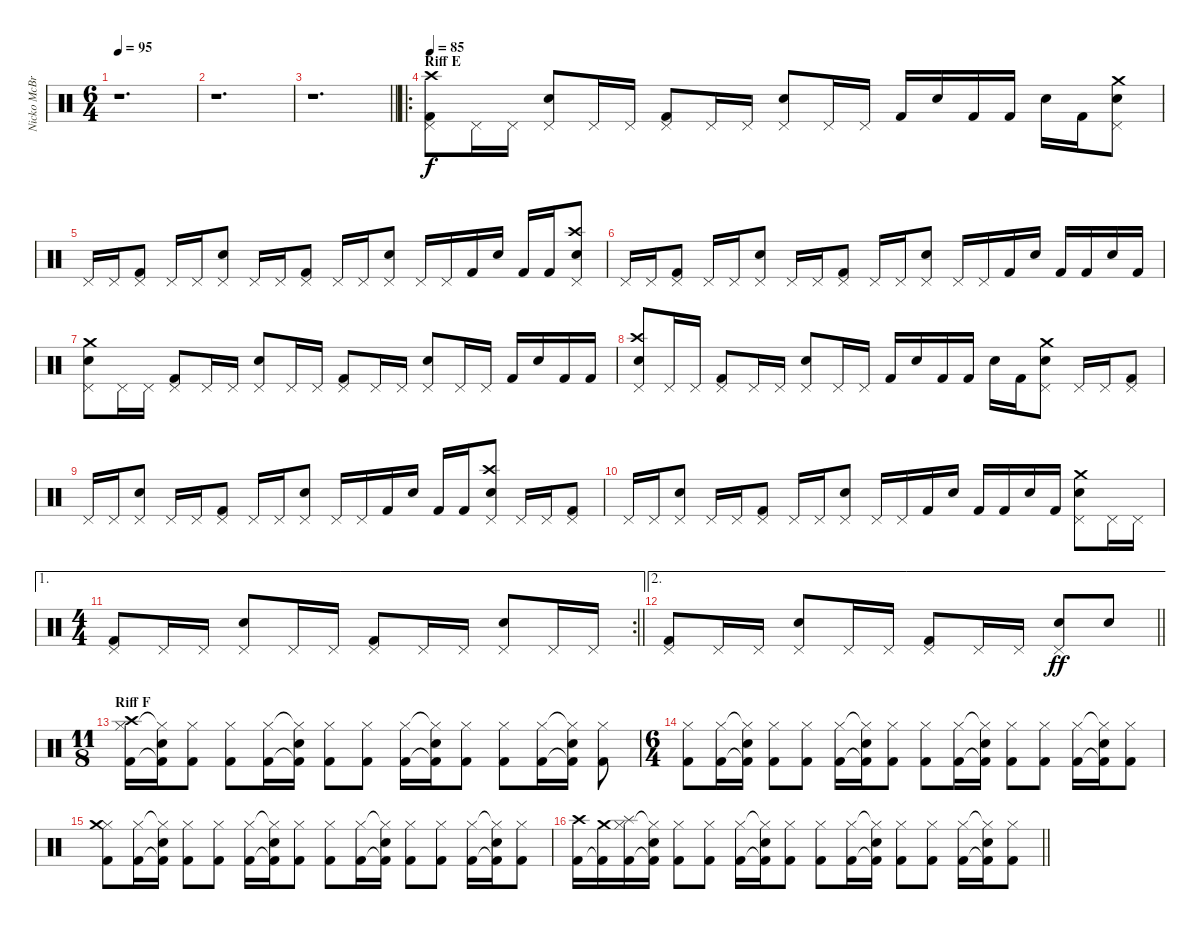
\track ("Nicko McBrain" "Nicko McBr") {instrument percussion}
\staff {score}
\articulation defaults
\ts (6 4)
\tempo 95
\clef neutral
\ks c
r.1{d dy f} |
r.1{d} |
\barLineRight lightlight
r.1{d} |
\ro
\section ("" "Riff E")
\tempo 85
("Kick (hit) 2" "Pedal Hi-Hat (hit)" "Crash high (hit)").8 "Pedal Hi-Hat (hit)".16 "Pedal Hi-Hat (hit)".16 ("Snare (hit) 2" "Pedal Hi-Hat (hit)").8 "Pedal Hi-Hat (hit)".16 "Pedal Hi-Hat (hit)".16 ("Kick (hit) 2" "Pedal Hi-Hat (hit)").8 "Pedal Hi-Hat (hit)".16 "Pedal Hi-Hat (hit)".16 ("Snare (hit) 2" "Pedal Hi-Hat (hit)").8 "Pedal Hi-Hat (hit)".16 "Pedal Hi-Hat (hit)".16 "Kick (hit) 2".16 "Snare (hit) 2".16 "Kick (hit) 2".16 "Kick (hit) 2".16 "Snare (hit) 2".16 "Kick (hit) 2".16 ("Snare (hit) 2" "Pedal Hi-Hat (hit)" "Crash medium (hit)").8 |
"Pedal Hi-Hat (hit)".16 "Pedal Hi-Hat (hit)".16 ("Kick (hit) 2" "Pedal Hi-Hat (hit)").8 "Pedal Hi-Hat (hit)".16 "Pedal Hi-Hat (hit)".16 ("Snare (hit) 2" "Pedal Hi-Hat (hit)").8 "Pedal Hi-Hat (hit)".16 "Pedal Hi-Hat (hit)".16 ("Kick (hit) 2" "Pedal Hi-Hat (hit)").8 "Pedal Hi-Hat (hit)".16 "Pedal Hi-Hat (hit)".16 ("Snare (hit) 2" "Pedal Hi-Hat (hit)").8 "Pedal Hi-Hat (hit)".16 "Pedal Hi-Hat (hit)".16 "Kick (hit) 2".16 "Snare (hit) 2".16 "Kick (hit) 2".16 "Kick (hit) 2".16 ("Snare (hit) 2" "Pedal Hi-Hat (hit)" "Crash high (hit)").8 |
"Pedal Hi-Hat (hit)".16 "Pedal Hi-Hat (hit)".16 ("Kick (hit) 2" "Pedal Hi-Hat (hit)").8 "Pedal Hi-Hat (hit)".16 "Pedal Hi-Hat (hit)".16 ("Snare (hit) 2" "Pedal Hi-Hat (hit)").8 "Pedal Hi-Hat (hit)".16 "Pedal Hi-Hat (hit)".16 ("Kick (hit) 2" "Pedal Hi-Hat (hit)").8 "Pedal Hi-Hat (hit)".16 "Pedal Hi-Hat (hit)".16 ("Snare (hit) 2" "Pedal Hi-Hat (hit)").8 "Pedal Hi-Hat (hit)".16 "Pedal Hi-Hat (hit)".16 "Kick (hit) 2".16 "Snare (hit) 2".16 "Kick (hit) 2".16 "Kick (hit) 2".16 "Snare (hit) 2".16 "Kick (hit) 2".16 |
("Snare (hit) 2" "Pedal Hi-Hat (hit)" "Crash medium (hit)").8 "Pedal Hi-Hat (hit)".16 "Pedal Hi-Hat (hit)".16 ("Kick (hit) 2" "Pedal Hi-Hat (hit)").8 "Pedal Hi-Hat (hit)".16 "Pedal Hi-Hat (hit)".16 ("Snare (hit) 2" "Pedal Hi-Hat (hit)").8 "Pedal Hi-Hat (hit)".16 "Pedal Hi-Hat (hit)".16 ("Kick (hit) 2" "Pedal Hi-Hat (hit)").8 "Pedal Hi-Hat (hit)".16 "Pedal Hi-Hat (hit)".16 ("Snare (hit) 2" "Pedal Hi-Hat (hit)").8 "Pedal Hi-Hat (hit)".16 "Pedal Hi-Hat (hit)".16 "Kick (hit) 2".16 "Snare (hit) 2".16 "Kick (hit) 2".16 "Kick (hit) 2".16 |
("Snare (hit) 2" "Pedal Hi-Hat (hit)" "Crash high (hit)").8 "Pedal Hi-Hat (hit)".16 "Pedal Hi-Hat (hit)".16 ("Kick (hit) 2" "Pedal Hi-Hat (hit)").8 "Pedal Hi-Hat (hit)".16 "Pedal Hi-Hat (hit)".16 ("Snare (hit) 2" "Pedal Hi-Hat (hit)").8 "Pedal Hi-Hat (hit)".16 "Pedal Hi-Hat (hit)".16 "Kick (hit) 2".16 "Snare (hit) 2".16 "Kick (hit) 2".16 "Kick (hit) 2".16 "Snare (hit) 2".16 "Kick (hit) 2".16 ("Snare (hit) 2" "Pedal Hi-Hat (hit)" "Crash medium (hit)").8 "Pedal Hi-Hat (hit)".16 "Pedal Hi-Hat (hit)".16 ("Kick (hit) 2" "Pedal Hi-Hat (hit)").8 |
"Pedal Hi-Hat (hit)".16 "Pedal Hi-Hat (hit)".16 ("Snare (hit) 2" "Pedal Hi-Hat (hit)").8 "Pedal Hi-Hat (hit)".16 "Pedal Hi-Hat (hit)".16 ("Kick (hit) 2" "Pedal Hi-Hat (hit)").8 "Pedal Hi-Hat (hit)".16 "Pedal Hi-Hat (hit)".16 ("Snare (hit) 2" "Pedal Hi-Hat (hit)").8 "Pedal Hi-Hat (hit)".16 "Pedal Hi-Hat (hit)".16 "Kick (hit) 2".16 "Snare (hit) 2".16 "Kick (hit) 2".16 "Kick (hit) 2".16 ("Snare (hit) 2" "Pedal Hi-Hat (hit)" "Crash high (hit)").8 "Pedal Hi-Hat (hit)".16 "Pedal Hi-Hat (hit)".16 ("Kick (hit) 2" "Pedal Hi-Hat (hit)").8 |
"Pedal Hi-Hat (hit)".16 "Pedal Hi-Hat (hit)".16 ("Snare (hit) 2" "Pedal Hi-Hat (hit)").8 "Pedal Hi-Hat (hit)".16 "Pedal Hi-Hat (hit)".16 ("Kick (hit) 2" "Pedal Hi-Hat (hit)").8 "Pedal Hi-Hat (hit)".16 "Pedal Hi-Hat (hit)".16 ("Snare (hit) 2" "Pedal Hi-Hat (hit)").8 "Pedal Hi-Hat (hit)".16 "Pedal Hi-Hat (hit)".16 "Kick (hit) 2".16 "Snare (hit) 2".16 "Kick (hit) 2".16 "Kick (hit) 2".16 "Snare (hit) 2".16 "Kick (hit) 2".16 ("Snare (hit) 2" "Pedal Hi-Hat (hit)" "Crash medium (hit)").8 "Pedal Hi-Hat (hit)".16 "Pedal Hi-Hat (hit)".16 |
\ae 1
\rc 2
\ts (4 4)
\barLineRight lightlight
("Kick (hit) 2" "Pedal Hi-Hat (hit)").8 "Pedal Hi-Hat (hit)".16 "Pedal Hi-Hat (hit)".16 ("Snare (hit) 2" "Pedal Hi-Hat (hit)").8 "Pedal Hi-Hat (hit)".16 "Pedal Hi-Hat (hit)".16 ("Kick (hit) 2" "Pedal Hi-Hat (hit)").8 "Pedal Hi-Hat (hit)".16 "Pedal Hi-Hat (hit)".16 ("Snare (hit) 2" "Pedal Hi-Hat (hit)").8 "Pedal Hi-Hat (hit)".16 "Pedal Hi-Hat (hit)".16 |
\ae 2
\barLineRight lightlight
("Kick (hit) 2" "Pedal Hi-Hat (hit)").8 "Pedal Hi-Hat (hit)".16 "Pedal Hi-Hat (hit)".16 ("Snare (hit) 2" "Pedal Hi-Hat (hit)").8 "Pedal Hi-Hat (hit)".16 "Pedal Hi-Hat (hit)".16 ("Kick (hit) 2" "Pedal Hi-Hat (hit)").8 "Pedal Hi-Hat (hit)".16 "Pedal Hi-Hat (hit)".16 ("Snare (hit) 2" "Pedal Hi-Hat (hit)").8{dy ff} "Snare (hit) 2".8 |
\ts (11 8)
\section ("" "Riff F")
("Kick (hit) 2" "Hi-Hat (closed)" "Crash high (hit)").16 ("Kick (hit) 2"{t} "Hi-Hat (closed)"{t} "Snare (hit) 2").16 ("Kick (hit) 2" "Hi-Hat (closed)").8 ("Kick (hit) 2" "Hi-Hat (closed)").8 ("Kick (hit) 2" "Hi-Hat (closed)").16 ("Kick (hit) 2"{t} "Hi-Hat (closed)"{t} "Snare (hit) 2").16 ("Kick (hit) 2" "Hi-Hat (closed)").8 ("Kick (hit) 2" "Hi-Hat (closed)").8 ("Kick (hit) 2" "Hi-Hat (closed)").16 ("Kick (hit) 2"{t} "Hi-Hat (closed)"{t} "Snare (hit) 2").16 ("Kick (hit) 2" "Hi-Hat (closed)").8 ("Kick (hit) 2" "Hi-Hat (closed)").8 ("Kick (hit) 2" "Hi-Hat (closed)").16 ("Kick (hit) 2"{t} "Hi-Hat (closed)"{t} "Snare (hit) 2").16 ("Kick (hit) 2" "Hi-Hat (closed)").8 |
\ts (6 4)
("Kick (hit) 2" "Hi-Hat (closed)").8 ("Kick (hit) 2" "Hi-Hat (closed)").16 ("Kick (hit) 2"{t} "Hi-Hat (closed)"{t} "Snare (hit) 2").16 ("Kick (hit) 2" "Hi-Hat (closed)").8 ("Kick (hit) 2" "Hi-Hat (closed)").8 ("Kick (hit) 2" "Hi-Hat (closed)").16 ("Kick (hit) 2"{t} "Hi-Hat (closed)"{t} "Snare (hit) 2").16 ("Kick (hit) 2" "Hi-Hat (closed)").8 ("Kick (hit) 2" "Hi-Hat (closed)").8 ("Kick (hit) 2" "Hi-Hat (closed)").16 ("Kick (hit) 2"{t} "Hi-Hat (closed)"{t} "Snare (hit) 2").16 ("Kick (hit) 2" "Hi-Hat (closed)").8 ("Kick (hit) 2" "Hi-Hat (closed)").8 ("Kick (hit) 2" "Hi-Hat (closed)").16 ("Kick (hit) 2"{t} "Hi-Hat (closed)"{t} "Snare (hit) 2").16 ("Kick (hit) 2" "Hi-Hat (closed)").8 |
("Kick (hit) 2" "Hi-Hat (closed)" "Crash medium (hit)").8 ("Kick (hit) 2" "Hi-Hat (closed)").16 ("Kick (hit) 2"{t} "Hi-Hat (closed)"{t} "Snare (hit) 2").16 ("Kick (hit) 2" "Hi-Hat (closed)").8 ("Kick (hit) 2" "Hi-Hat (closed)").8 ("Kick (hit) 2" "Hi-Hat (closed)").16 ("Kick (hit) 2"{t} "Hi-Hat (closed)"{t} "Snare (hit) 2").16 ("Kick (hit) 2" "Hi-Hat (closed)").8 ("Kick (hit) 2" "Hi-Hat (closed)").8 ("Kick (hit) 2" "Hi-Hat (closed)").16 ("Kick (hit) 2"{t} "Hi-Hat (closed)"{t} "Snare (hit) 2").16 ("Kick (hit) 2" "Hi-Hat (closed)").8 ("Kick (hit) 2" "Hi-Hat (closed)").8 ("Kick (hit) 2" "Hi-Hat (closed)").16 ("Kick (hit) 2"{t} "Hi-Hat (closed)"{t} "Snare (hit) 2").16 ("Kick (hit) 2" "Hi-Hat (closed)").8 |
\barLineRight lightlight
("Kick (hit) 2" "Crash high (hit)").16 ("Kick (hit) 2"{t} "Crash medium (hit)").16 ("Kick (hit) 2" "Hi-Hat (closed)" "Splash (hit)").16 ("Kick (hit) 2"{t} "Hi-Hat (closed)"{t} "Snare (hit) 2").16 ("Kick (hit) 2" "Hi-Hat (closed)").8 ("Kick (hit) 2" "Hi-Hat (closed)").8 ("Kick (hit) 2" "Hi-Hat (closed)").16 ("Kick (hit) 2"{t} "Hi-Hat (closed)"{t} "Snare (hit) 2").16 ("Kick (hit) 2" "Hi-Hat (closed)").8 ("Kick (hit) 2" "Hi-Hat (closed)").8 ("Kick (hit) 2" "Hi-Hat (closed)").16 ("Kick (hit) 2"{t} "Hi-Hat (closed)"{t} "Snare (hit) 2").16 ("Kick (hit) 2" "Hi-Hat (closed)").8 ("Kick (hit) 2" "Hi-Hat (closed)").8 ("Kick (hit) 2" "Hi-Hat (closed)").16 ("Kick (hit) 2"{t} "Hi-Hat (closed)"{t} "Snare (hit) 2").16 ("Kick (hit) 2" "Hi-Hat (closed)").8
